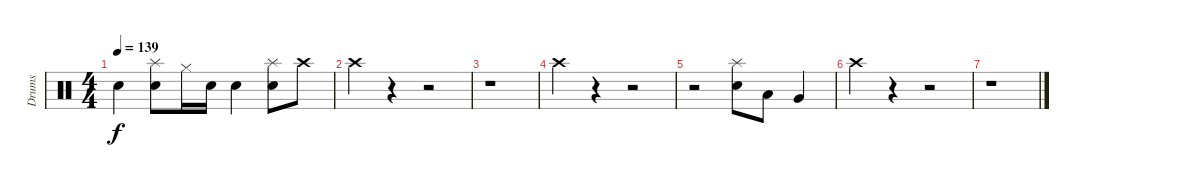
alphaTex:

\track ("Drums" "Drums") {instrument percussion}
\staff {score}
\articulation defaults
\ts (4 4)
\tempo 139
\clef neutral
\ks c "Snare (hit) 2".4{dy f}
("Splash (hit)" "Snare (hit) 2").8 "Hi-Hat (closed)".16 "Snare (hit) 2".16 "Snare (hit) 2".4 ("Splash (hit)" "Snare (hit) 2").8 "Crash high (hit)".8 |
"Crash high (hit)".4 r.4 r.2 |
r.1 |
"Crash high (hit)".4 r.4 r.2 |
r.2 ("Splash (hit)" "Snare (hit) 2").8 "Low Tom (hit)".8 "Very Low Tom (hit)".4 |
"Crash high (hit)".4 r.4 r.2 |
r.1
